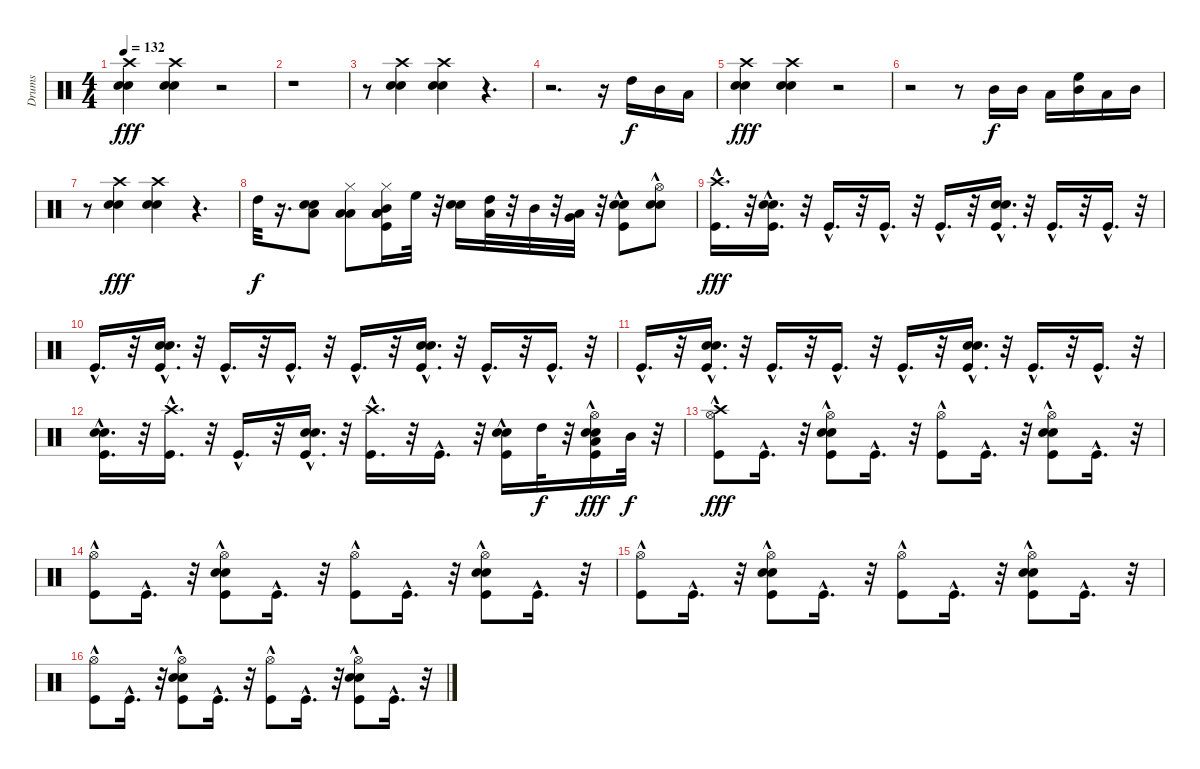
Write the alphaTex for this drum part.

\track ("Drums" "Drums") {instrument percussion}
\staff {score}
\articulation defaults
\ts (4 4)
\tempo 132
\clef neutral
\ks c
("Snare (hit) 2" "Electric Snare (hit)" "Crash high (hit)").4{dy fff} ("Electric Snare (hit)" "Crash high (hit)" "Snare (hit) 2").4 r.2 |
r.1 |
r.8 ("Snare (hit) 2" "Electric Snare (hit)" "Crash high (hit)").4 ("Electric Snare (hit)" "Crash high (hit)" "Snare (hit) 2").4 r.4{d} |
r.2{d} r.16 "High Tom (hit)".16{dy f} "Mid Tom (hit)".16 "Low Tom (hit)".16 |
("Snare (hit) 2" "Electric Snare (hit)" "Crash high (hit)").4{dy fff} ("Electric Snare (hit)" "Crash high (hit)" "Snare (hit) 2").4 r.2 |
r.2 r.8 "Mid Tom (hit)".16{dy f} "Mid Tom (hit)".16 "Low Tom (hit)".16 ("High Floor Tom (hit)" "Mid Tom (hit)").16 "Low Tom (hit)".16 "Mid Tom (hit)".16 |
r.8 ("Snare (hit) 2" "Electric Snare (hit)" "Crash high (hit)").4{dy fff} ("Electric Snare (hit)" "Crash high (hit)" "Snare (hit) 2").4 r.4{d} |
"High Tom (hit)".32{dy f} r.16{d} ("Snare (hit) 2" "Electric Snare (hit)" "Low Tom (hit)").8 ("Hi-Hat (closed)" "Low Tom (hit)" "Low Tom (hit)").8 ("Kick (hit)" "Hi-Hat (closed)" "Low Tom (hit)" "Low Tom (hit)" "Mid Tom (hit)").16 "High Floor Tom (hit)".32 r.32 ("Snare (hit) 2" "Electric Snare (hit)").16 ("High Tom (hit)" "Low Tom (hit)").32 r.32 "Mid Tom (hit)".32 r.32 ("Low Floor Tom (hit)" "Very Low Tom (hit)").32 r.32 ("Kick (hit)" "Electric Snare (hit)"{hac} "Snare (hit) 2"{hac}).8 ("Snare (hit) 2" "Electric Snare (hit)" "Hi-Hat (open)"{hac}).8 |
("Kick (hit)"{hac} "Crash high (hit)"{hac}).16{d dy fff} r.32 ("Kick (hit)"{hac} "Snare (hit) 2"{hac} "Electric Snare (hit)"{hac}).16{d} r.32 "Kick (hit)"{hac}.16{d} r.32 "Kick (hit)"{hac}.16{d} r.32 "Kick (hit)"{hac}.16{d} r.32 ("Kick (hit)"{hac} "Snare (hit) 2"{hac} "Electric Snare (hit)"{hac}).16{d} r.32 "Kick (hit)"{hac}.16{d} r.32 "Kick (hit)"{hac}.16{d} r.32 |
"Kick (hit)"{hac}.16{d} r.32 ("Kick (hit)"{hac} "Snare (hit) 2"{hac} "Electric Snare (hit)"{hac}).16{d} r.32 "Kick (hit)"{hac}.16{d} r.32 "Kick (hit)"{hac}.16{d} r.32 "Kick (hit)"{hac}.16{d} r.32 ("Kick (hit)"{hac} "Snare (hit) 2"{hac} "Electric Snare (hit)"{hac}).16{d} r.32 "Kick (hit)"{hac}.16{d} r.32 "Kick (hit)"{hac}.16{d} r.32 |
"Kick (hit)"{hac}.16{d} r.32 ("Kick (hit)"{hac} "Snare (hit) 2"{hac} "Electric Snare (hit)"{hac}).16{d} r.32 "Kick (hit)"{hac}.16{d} r.32 "Kick (hit)"{hac}.16{d} r.32 "Kick (hit)"{hac}.16{d} r.32 ("Kick (hit)"{hac} "Snare (hit) 2"{hac} "Electric Snare (hit)"{hac}).16{d} r.32 "Kick (hit)"{hac}.16{d} r.32 "Kick (hit)"{hac}.16{d} r.32 |
("Kick (hit)"{hac} "Snare (hit) 2"{hac} "Electric Snare (hit)"{hac}).16{d} r.32 ("Kick (hit)"{hac} "Crash high (hit)"{hac}).16{d} r.32 "Kick (hit)"{hac}.16{d} r.32 ("Kick (hit)"{hac} "Snare (hit) 2"{hac} "Electric Snare (hit)"{hac}).16{d} r.32 ("Kick (hit)"{hac} "Crash high (hit)"{hac}).16{d} r.32 "Kick (hit)"{hac}.16{d} r.32 ("Kick (hit)"{hac} "Snare (hit) 2"{hac} "Electric Snare (hit)"{hac}).16 "High Tom (hit)".32{dy f} r.32 ("Kick (hit)"{hac} "Snare (hit) 2"{hac} "Electric Snare (hit)"{hac} "Hi-Hat (open)"{hac} "Low Tom (hit)").16{dy fff} "Mid Tom (hit)".32{dy f} r.32 |
("Hi-Hat (open)" "Kick (hit)"{hac} "Crash high (hit)"{hac}).8{dy fff} "Kick (hit)"{hac}.16{d} r.32 ("Hi-Hat (open)" "Kick (hit)"{hac} "Snare (hit) 2"{hac} "Electric Snare (hit)"{hac}).8 "Kick (hit)"{hac}.16{d} r.32 ("Hi-Hat (open)" "Kick (hit)"{hac}).8 "Kick (hit)"{hac}.16{d} r.32 ("Hi-Hat (open)" "Kick (hit)"{hac} "Snare (hit) 2"{hac} "Electric Snare (hit)"{hac}).8 "Kick (hit)"{hac}.16{d} r.32 |
("Hi-Hat (open)" "Kick (hit)"{hac}).8 "Kick (hit)"{hac}.16{d} r.32 ("Hi-Hat (open)" "Kick (hit)"{hac} "Snare (hit) 2"{hac} "Electric Snare (hit)"{hac}).8 "Kick (hit)"{hac}.16{d} r.32 ("Hi-Hat (open)" "Kick (hit)"{hac}).8 "Kick (hit)"{hac}.16{d} r.32 ("Hi-Hat (open)" "Kick (hit)"{hac} "Snare (hit) 2"{hac} "Electric Snare (hit)"{hac}).8 "Kick (hit)"{hac}.16{d} r.32 |
("Hi-Hat (open)" "Kick (hit)"{hac}).8 "Kick (hit)"{hac}.16{d} r.32 ("Hi-Hat (open)" "Kick (hit)"{hac} "Snare (hit) 2"{hac} "Electric Snare (hit)"{hac}).8 "Kick (hit)"{hac}.16{d} r.32 ("Hi-Hat (open)" "Kick (hit)"{hac}).8 "Kick (hit)"{hac}.16{d} r.32 ("Hi-Hat (open)" "Kick (hit)"{hac} "Snare (hit) 2"{hac} "Electric Snare (hit)"{hac}).8 "Kick (hit)"{hac}.16{d} r.32 |
("Hi-Hat (open)" "Kick (hit)"{hac}).8 "Kick (hit)"{hac}.16{d} r.32 ("Hi-Hat (open)" "Kick (hit)"{hac} "Snare (hit) 2"{hac} "Electric Snare (hit)"{hac}).8 "Kick (hit)"{hac}.16{d} r.32 ("Hi-Hat (open)" "Kick (hit)"{hac}).8 "Kick (hit)"{hac}.16{d} r.32 ("Hi-Hat (open)" "Kick (hit)"{hac} "Snare (hit) 2"{hac} "Electric Snare (hit)"{hac}).8 "Kick (hit)"{hac}.16{d} r.32
